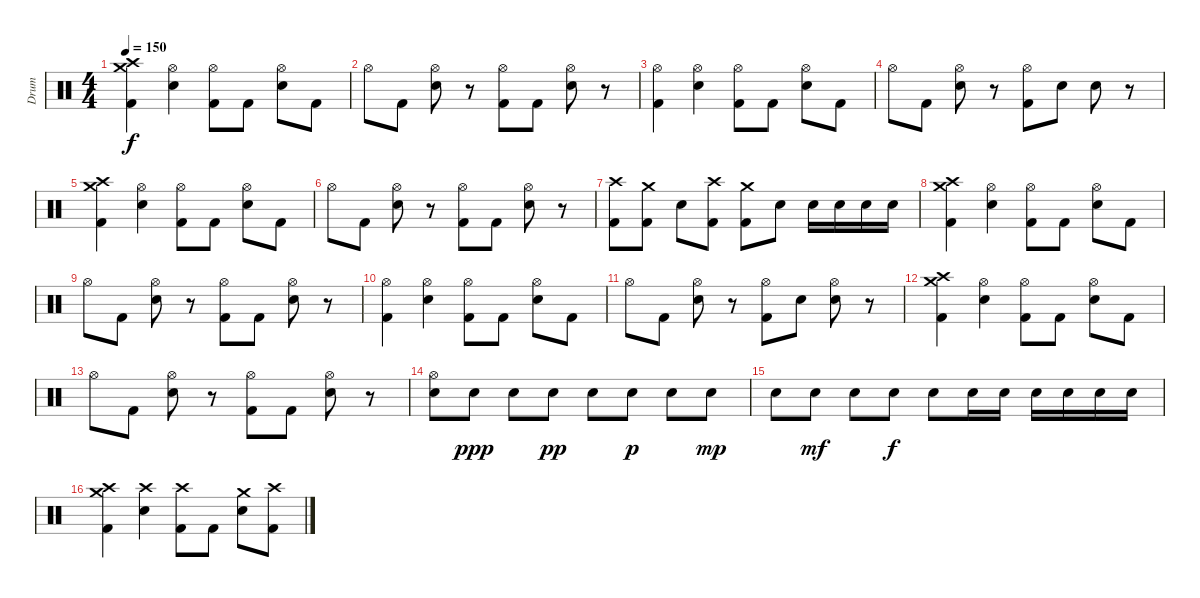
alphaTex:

\track ("Drum" "Drum") {instrument percussion}
\staff {score}
\articulation defaults
\ts (4 4)
\tempo 150
\clef neutral
\ks c
("Crash high (hit)" "Crash medium (hit)" "Kick (hit) 2").4{dy f} ("Hi-Hat (open)" "Electric Snare (hit)").4 ("Hi-Hat (open)" "Kick (hit) 2").8 "Kick (hit) 2".8 ("Hi-Hat (open)" "Electric Snare (hit)").8 "Kick (hit) 2".8 |
"Hi-Hat (open)".8 "Kick (hit) 2".8 ("Hi-Hat (open)" "Electric Snare (hit)").8 r.8 ("Hi-Hat (open)" "Kick (hit) 2").8 "Kick (hit) 2".8 ("Hi-Hat (open)" "Electric Snare (hit)").8 r.8 |
("Hi-Hat (open)" "Kick (hit) 2").4 ("Hi-Hat (open)" "Electric Snare (hit)").4 ("Hi-Hat (open)" "Kick (hit) 2").8 "Kick (hit) 2".8 ("Hi-Hat (open)" "Electric Snare (hit)").8 "Kick (hit) 2".8 |
"Hi-Hat (open)".8 "Kick (hit) 2".8 ("Hi-Hat (open)" "Electric Snare (hit)").8 r.8 ("Hi-Hat (open)" "Kick (hit) 2").8 "Electric Snare (hit)".8 "Electric Snare (hit)".8 r.8 |
("Crash high (hit)" "Crash medium (hit)" "Kick (hit) 2").4 ("Hi-Hat (open)" "Electric Snare (hit)").4 ("Hi-Hat (open)" "Kick (hit) 2").8 "Kick (hit) 2".8 ("Hi-Hat (open)" "Electric Snare (hit)").8 "Kick (hit) 2".8 |
"Hi-Hat (open)".8 "Kick (hit) 2".8 ("Hi-Hat (open)" "Electric Snare (hit)").8 r.8 ("Hi-Hat (open)" "Kick (hit) 2").8 "Kick (hit) 2".8 ("Hi-Hat (open)" "Electric Snare (hit)").8 r.8 |
("Crash high (hit)" "Kick (hit) 2").8 ("Crash medium (hit)" "Kick (hit) 2").8 "Electric Snare (hit)".8 ("Crash high (hit)" "Kick (hit) 2").8 ("Crash medium (hit)" "Kick (hit) 2").8 "Electric Snare (hit)".8 "Electric Snare (hit)".16 "Electric Snare (hit)".16 "Electric Snare (hit)".16 "Electric Snare (hit)".16 |
("Crash high (hit)" "Crash medium (hit)" "Kick (hit) 2").4 ("Hi-Hat (open)" "Electric Snare (hit)").4 ("Hi-Hat (open)" "Kick (hit) 2").8 "Kick (hit) 2".8 ("Hi-Hat (open)" "Electric Snare (hit)").8 "Kick (hit) 2".8 |
"Hi-Hat (open)".8 "Kick (hit) 2".8 ("Hi-Hat (open)" "Electric Snare (hit)").8 r.8 ("Hi-Hat (open)" "Kick (hit) 2").8 "Kick (hit) 2".8 ("Hi-Hat (open)" "Electric Snare (hit)").8 r.8 |
("Hi-Hat (open)" "Kick (hit) 2").4 ("Hi-Hat (open)" "Electric Snare (hit)").4 ("Hi-Hat (open)" "Kick (hit) 2").8 "Kick (hit) 2".8 ("Hi-Hat (open)" "Electric Snare (hit)").8 "Kick (hit) 2".8 |
"Hi-Hat (open)".8 "Kick (hit) 2".8 ("Hi-Hat (open)" "Electric Snare (hit)").8 r.8 ("Hi-Hat (open)" "Kick (hit) 2").8 "Electric Snare (hit)".8 ("Hi-Hat (open)" "Electric Snare (hit)").8 r.8 |
("Crash high (hit)" "Crash medium (hit)" "Kick (hit) 2").4 ("Hi-Hat (open)" "Electric Snare (hit)").4 ("Hi-Hat (open)" "Kick (hit) 2").8 "Kick (hit) 2".8 ("Hi-Hat (open)" "Electric Snare (hit)").8 "Kick (hit) 2".8 |
"Hi-Hat (open)".8 "Kick (hit) 2".8 ("Hi-Hat (open)" "Electric Snare (hit)").8 r.8 ("Hi-Hat (open)" "Kick (hit) 2").8 "Kick (hit) 2".8 ("Hi-Hat (open)" "Electric Snare (hit)").8 r.8 |
("Hi-Hat (open)" "Electric Snare (hit)").8 "Electric Snare (hit)".8{dy ppp} "Electric Snare (hit)".8 "Electric Snare (hit)".8{dy pp} "Electric Snare (hit)".8 "Electric Snare (hit)".8{dy p} "Electric Snare (hit)".8 "Electric Snare (hit)".8{dy mp} |
"Electric Snare (hit)".8 "Electric Snare (hit)".8{dy mf} "Electric Snare (hit)".8 "Electric Snare (hit)".8{dy f} "Electric Snare (hit)".8 "Electric Snare (hit)".16 "Electric Snare (hit)".16 "Electric Snare (hit)".16 "Electric Snare (hit)".16 "Electric Snare (hit)".16 "Electric Snare (hit)".16 |
("Crash high (hit)" "Crash medium (hit)" "Kick (hit) 2").4 ("Crash high (hit)" "Electric Snare (hit)").4 ("Crash high (hit)" "Kick (hit) 2").8 "Kick (hit) 2".8 ("Crash medium (hit)" "Electric Snare (hit)").8 ("Crash high (hit)" "Kick (hit) 2").8
